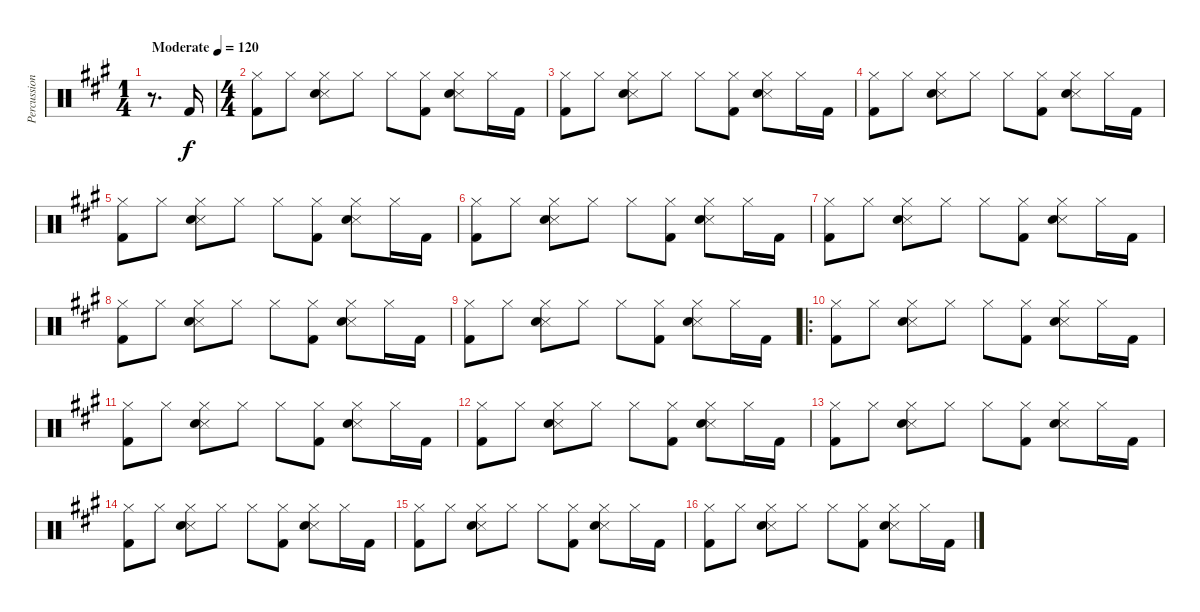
\track ("Percussion" "Percussion") {instrument percussion}
\staff {score}
\articulation defaults
\ts (1 4)
\tempo (120 "Moderate")
\clef neutral
\ks a
r.8{d dy f} "Kick (hit) 2".16 |
\ts (4 4)
("Hi-Hat (closed)" "Kick (hit) 2").8 "Hi-Hat (closed)".8 ("Hi-Hat (closed)" "Snare (side stick) 3" "Electric Snare (hit)").8 "Hi-Hat (closed)".8 "Hi-Hat (closed)".8 ("Hi-Hat (closed)" "Kick (hit) 2").8 ("Hi-Hat (closed)" "Snare (side stick) 3" "Electric Snare (hit)").8 "Hi-Hat (closed)".16 "Kick (hit) 2".16 |
("Hi-Hat (closed)" "Kick (hit) 2").8 "Hi-Hat (closed)".8 ("Hi-Hat (closed)" "Snare (side stick) 3" "Electric Snare (hit)").8 "Hi-Hat (closed)".8 "Hi-Hat (closed)".8 ("Hi-Hat (closed)" "Kick (hit) 2").8 ("Hi-Hat (closed)" "Snare (side stick) 3" "Electric Snare (hit)").8 "Hi-Hat (closed)".16 "Kick (hit) 2".16 |
("Hi-Hat (closed)" "Kick (hit) 2").8 "Hi-Hat (closed)".8 ("Hi-Hat (closed)" "Snare (side stick) 3" "Electric Snare (hit)").8 "Hi-Hat (closed)".8 "Hi-Hat (closed)".8 ("Hi-Hat (closed)" "Kick (hit) 2").8 ("Hi-Hat (closed)" "Snare (side stick) 3" "Electric Snare (hit)").8 "Hi-Hat (closed)".16 "Kick (hit) 2".16 |
("Hi-Hat (closed)" "Kick (hit) 2").8 "Hi-Hat (closed)".8 ("Hi-Hat (closed)" "Snare (side stick) 3" "Electric Snare (hit)").8 "Hi-Hat (closed)".8 "Hi-Hat (closed)".8 ("Hi-Hat (closed)" "Kick (hit) 2").8 ("Hi-Hat (closed)" "Snare (side stick) 3" "Electric Snare (hit)").8 "Hi-Hat (closed)".16 "Kick (hit) 2".16 |
("Hi-Hat (closed)" "Kick (hit) 2").8 "Hi-Hat (closed)".8 ("Hi-Hat (closed)" "Snare (side stick) 3" "Electric Snare (hit)").8 "Hi-Hat (closed)".8 "Hi-Hat (closed)".8 ("Hi-Hat (closed)" "Kick (hit) 2").8 ("Hi-Hat (closed)" "Snare (side stick) 3" "Electric Snare (hit)").8 "Hi-Hat (closed)".16 "Kick (hit) 2".16 |
("Hi-Hat (closed)" "Kick (hit) 2").8 "Hi-Hat (closed)".8 ("Hi-Hat (closed)" "Snare (side stick) 3" "Electric Snare (hit)").8 "Hi-Hat (closed)".8 "Hi-Hat (closed)".8 ("Hi-Hat (closed)" "Kick (hit) 2").8 ("Hi-Hat (closed)" "Snare (side stick) 3" "Electric Snare (hit)").8 "Hi-Hat (closed)".16 "Kick (hit) 2".16 |
("Hi-Hat (closed)" "Kick (hit) 2").8 "Hi-Hat (closed)".8 ("Hi-Hat (closed)" "Snare (side stick) 3" "Electric Snare (hit)").8 "Hi-Hat (closed)".8 "Hi-Hat (closed)".8 ("Hi-Hat (closed)" "Kick (hit) 2").8 ("Hi-Hat (closed)" "Snare (side stick) 3" "Electric Snare (hit)").8 "Hi-Hat (closed)".16 "Kick (hit) 2".16 |
("Hi-Hat (closed)" "Kick (hit) 2").8 "Hi-Hat (closed)".8 ("Hi-Hat (closed)" "Snare (side stick) 3" "Electric Snare (hit)").8 "Hi-Hat (closed)".8 "Hi-Hat (closed)".8 ("Hi-Hat (closed)" "Kick (hit) 2").8 ("Hi-Hat (closed)" "Snare (side stick) 3" "Electric Snare (hit)").8 "Hi-Hat (closed)".16 "Kick (hit) 2".16 |
\ro
("Hi-Hat (closed)" "Kick (hit) 2").8 "Hi-Hat (closed)".8 ("Hi-Hat (closed)" "Snare (side stick) 3" "Electric Snare (hit)").8 "Hi-Hat (closed)".8 "Hi-Hat (closed)".8 ("Hi-Hat (closed)" "Kick (hit) 2").8 ("Hi-Hat (closed)" "Snare (side stick) 3" "Electric Snare (hit)").8 "Hi-Hat (closed)".16 "Kick (hit) 2".16 |
("Hi-Hat (closed)" "Kick (hit) 2").8 "Hi-Hat (closed)".8 ("Hi-Hat (closed)" "Snare (side stick) 3" "Electric Snare (hit)").8 "Hi-Hat (closed)".8 "Hi-Hat (closed)".8 ("Hi-Hat (closed)" "Kick (hit) 2").8 ("Hi-Hat (closed)" "Snare (side stick) 3" "Electric Snare (hit)").8 "Hi-Hat (closed)".16 "Kick (hit) 2".16 |
("Hi-Hat (closed)" "Kick (hit) 2").8 "Hi-Hat (closed)".8 ("Hi-Hat (closed)" "Snare (side stick) 3" "Electric Snare (hit)").8 "Hi-Hat (closed)".8 "Hi-Hat (closed)".8 ("Hi-Hat (closed)" "Kick (hit) 2").8 ("Hi-Hat (closed)" "Snare (side stick) 3" "Electric Snare (hit)").8 "Hi-Hat (closed)".16 "Kick (hit) 2".16 |
("Hi-Hat (closed)" "Kick (hit) 2").8 "Hi-Hat (closed)".8 ("Hi-Hat (closed)" "Snare (side stick) 3" "Electric Snare (hit)").8 "Hi-Hat (closed)".8 "Hi-Hat (closed)".8 ("Hi-Hat (closed)" "Kick (hit) 2").8 ("Hi-Hat (closed)" "Snare (side stick) 3" "Electric Snare (hit)").8 "Hi-Hat (closed)".16 "Kick (hit) 2".16 |
("Hi-Hat (closed)" "Kick (hit) 2").8 "Hi-Hat (closed)".8 ("Hi-Hat (closed)" "Snare (side stick) 3" "Electric Snare (hit)").8 "Hi-Hat (closed)".8 "Hi-Hat (closed)".8 ("Hi-Hat (closed)" "Kick (hit) 2").8 ("Hi-Hat (closed)" "Snare (side stick) 3" "Electric Snare (hit)").8 "Hi-Hat (closed)".16 "Kick (hit) 2".16 |
("Hi-Hat (closed)" "Kick (hit) 2").8 "Hi-Hat (closed)".8 ("Hi-Hat (closed)" "Snare (side stick) 3" "Electric Snare (hit)").8 "Hi-Hat (closed)".8 "Hi-Hat (closed)".8 ("Hi-Hat (closed)" "Kick (hit) 2").8 ("Hi-Hat (closed)" "Snare (side stick) 3" "Electric Snare (hit)").8 "Hi-Hat (closed)".16 "Kick (hit) 2".16 |
("Hi-Hat (closed)" "Kick (hit) 2").8 "Hi-Hat (closed)".8 ("Hi-Hat (closed)" "Snare (side stick) 3" "Electric Snare (hit)").8 "Hi-Hat (closed)".8 "Hi-Hat (closed)".8 ("Hi-Hat (closed)" "Kick (hit) 2").8 ("Hi-Hat (closed)" "Snare (side stick) 3" "Electric Snare (hit)").8 "Hi-Hat (closed)".16 "Kick (hit) 2".16
